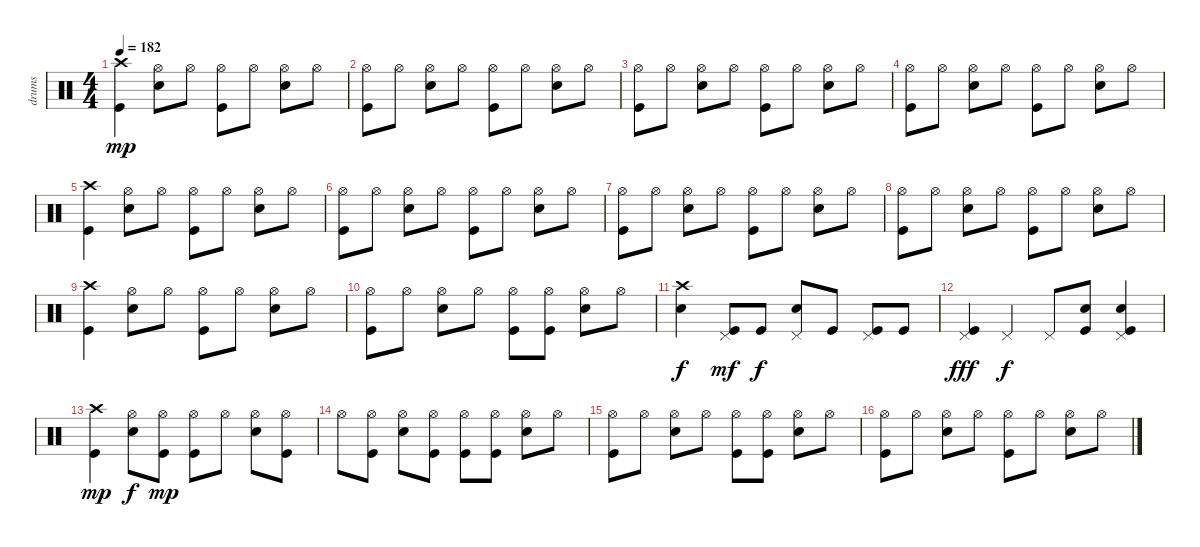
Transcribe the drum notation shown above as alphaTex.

\track ("drums" "drums") {instrument percussion}
\staff {score}
\articulation defaults
\ts (4 4)
\tempo 182
\clef neutral
\ks c
("Kick (hit)" "Crash high (hit)").4{dy mp} ("Snare (hit) 2" "Hi-Hat (open)").8 "Hi-Hat (open)".8 ("Kick (hit)" "Hi-Hat (open)").8 "Hi-Hat (open)".8 ("Snare (hit) 2" "Hi-Hat (open)").8 "Hi-Hat (open)".8 |
("Kick (hit)" "Hi-Hat (open)").8 "Hi-Hat (open)".8 ("Snare (hit) 2" "Hi-Hat (open)").8 "Hi-Hat (open)".8 ("Kick (hit)" "Hi-Hat (open)").8 "Hi-Hat (open)".8 ("Snare (hit) 2" "Hi-Hat (open)").8 "Hi-Hat (open)".8 |
("Kick (hit)" "Hi-Hat (open)").8 "Hi-Hat (open)".8 ("Snare (hit) 2" "Hi-Hat (open)").8 "Hi-Hat (open)".8 ("Kick (hit)" "Hi-Hat (open)").8 "Hi-Hat (open)".8 ("Snare (hit) 2" "Hi-Hat (open)").8 "Hi-Hat (open)".8 |
("Kick (hit)" "Hi-Hat (open)").8 "Hi-Hat (open)".8 ("Snare (hit) 2" "Hi-Hat (open)").8 "Hi-Hat (open)".8 ("Kick (hit)" "Hi-Hat (open)").8 "Hi-Hat (open)".8 ("Snare (hit) 2" "Hi-Hat (open)").8 "Hi-Hat (open)".8 |
("Kick (hit)" "Crash high (hit)").4 ("Snare (hit) 2" "Hi-Hat (open)").8 "Hi-Hat (open)".8 ("Kick (hit)" "Hi-Hat (open)").8 "Hi-Hat (open)".8 ("Snare (hit) 2" "Hi-Hat (open)").8 "Hi-Hat (open)".8 |
("Kick (hit)" "Hi-Hat (open)").8 "Hi-Hat (open)".8 ("Snare (hit) 2" "Hi-Hat (open)").8 "Hi-Hat (open)".8 ("Kick (hit)" "Hi-Hat (open)").8 "Hi-Hat (open)".8 ("Snare (hit) 2" "Hi-Hat (open)").8 "Hi-Hat (open)".8 |
("Kick (hit)" "Hi-Hat (open)").8 "Hi-Hat (open)".8 ("Snare (hit) 2" "Hi-Hat (open)").8 "Hi-Hat (open)".8 ("Kick (hit)" "Hi-Hat (open)").8 "Hi-Hat (open)".8 ("Snare (hit) 2" "Hi-Hat (open)").8 "Hi-Hat (open)".8 |
("Kick (hit)" "Hi-Hat (open)").8 "Hi-Hat (open)".8 ("Snare (hit) 2" "Hi-Hat (open)").8 "Hi-Hat (open)".8 ("Kick (hit)" "Hi-Hat (open)").8 "Hi-Hat (open)".8 ("Snare (hit) 2" "Hi-Hat (open)").8 "Hi-Hat (open)".8 |
("Kick (hit)" "Crash high (hit)").4 ("Snare (hit) 2" "Hi-Hat (open)").8 "Hi-Hat (open)".8 ("Kick (hit)" "Hi-Hat (open)").8 "Hi-Hat (open)".8 ("Snare (hit) 2" "Hi-Hat (open)").8 "Hi-Hat (open)".8 |
("Kick (hit)" "Hi-Hat (open)").8 "Hi-Hat (open)".8 ("Snare (hit) 2" "Hi-Hat (open)").8 "Hi-Hat (open)".8 ("Kick (hit)" "Hi-Hat (open)").8 ("Kick (hit)" "Hi-Hat (open)").8 ("Snare (hit) 2" "Hi-Hat (open)").8 "Hi-Hat (open)".8 |
("Snare (hit) 2" "Crash high (hit)").4{dy f} ("Kick (hit)" "Pedal Hi-Hat (hit)").8{dy mf} "Kick (hit)".8{dy f} ("Snare (hit) 2" "Pedal Hi-Hat (hit)").8 "Kick (hit)".8 ("Kick (hit)" "Pedal Hi-Hat (hit)").8 "Kick (hit)".8 |
("Kick (hit)" "Pedal Hi-Hat (hit)").4{dy fff} "Pedal Hi-Hat (hit)".4{dy f} "Pedal Hi-Hat (hit)".8 ("Snare (hit) 2" "Kick (hit)").8 ("Snare (hit) 2" "Kick (hit)" "Pedal Hi-Hat (hit)").4 |
("Kick (hit)" "Crash high (hit)").4{dy mp} ("Snare (hit) 2" "Hi-Hat (open)").8{dy f} ("Kick (hit)" "Hi-Hat (open)").8{dy mp} ("Kick (hit)" "Hi-Hat (open)").8 "Hi-Hat (open)".8 ("Snare (hit) 2" "Hi-Hat (open)").8 ("Kick (hit)" "Hi-Hat (open)").8 |
"Hi-Hat (open)".8 ("Kick (hit)" "Hi-Hat (open)").8 ("Snare (hit) 2" "Hi-Hat (open)").8 ("Kick (hit)" "Hi-Hat (open)").8 ("Kick (hit)" "Hi-Hat (open)").8 ("Kick (hit)" "Hi-Hat (open)").8 ("Snare (hit) 2" "Hi-Hat (open)").8 "Hi-Hat (open)".8 |
("Kick (hit)" "Hi-Hat (open)").8 "Hi-Hat (open)".8 ("Snare (hit) 2" "Hi-Hat (open)").8 "Hi-Hat (open)".8 ("Kick (hit)" "Hi-Hat (open)").8 ("Kick (hit)" "Hi-Hat (open)").8 ("Snare (hit) 2" "Hi-Hat (open)").8 "Hi-Hat (open)".8 |
("Kick (hit)" "Hi-Hat (open)").8 "Hi-Hat (open)".8 ("Snare (hit) 2" "Hi-Hat (open)").8 "Hi-Hat (open)".8 ("Kick (hit)" "Hi-Hat (open)").8 "Hi-Hat (open)".8 ("Snare (hit) 2" "Hi-Hat (open)").8 "Hi-Hat (open)".8
